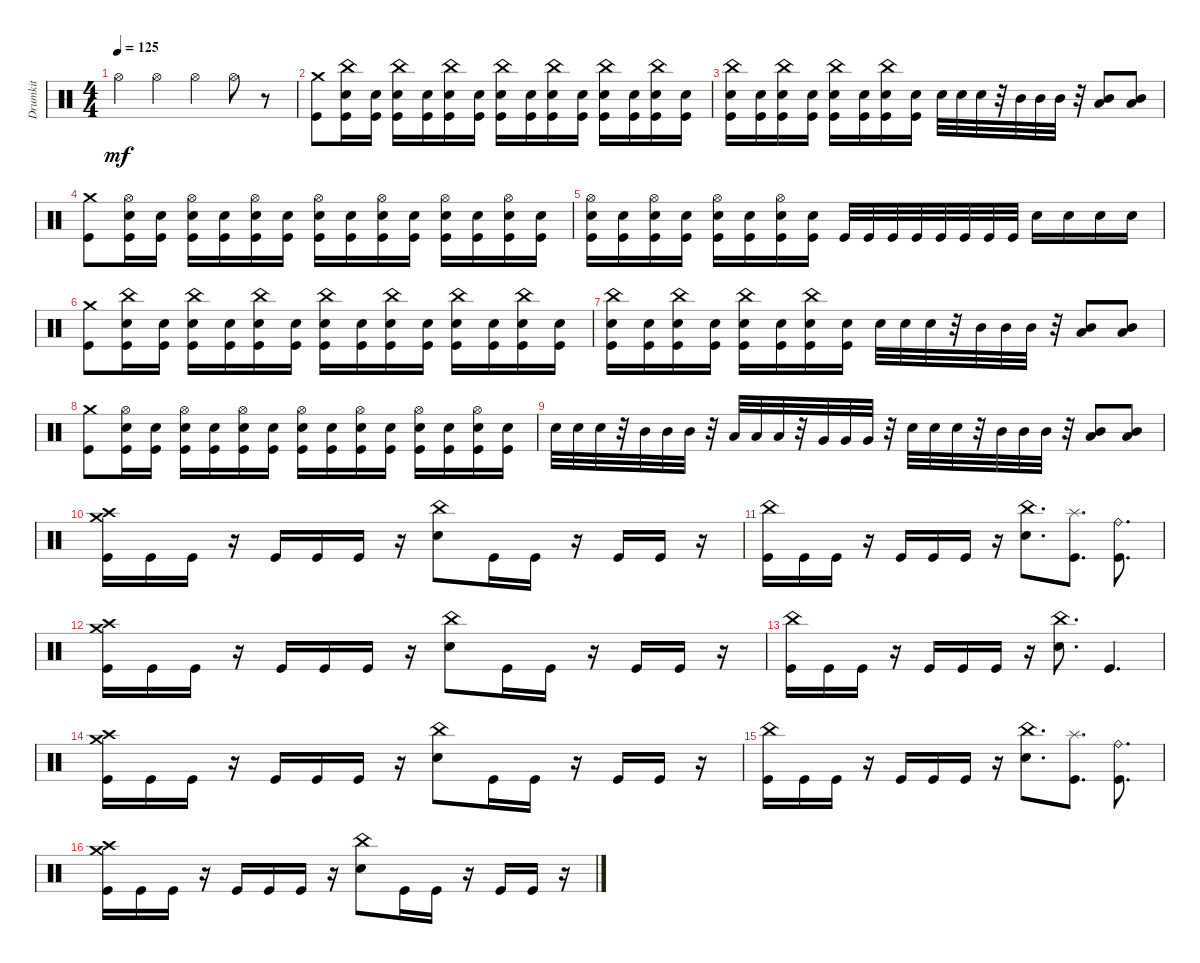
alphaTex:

\track ("Drumkit" "Drumkit") {instrument percussion}
\staff {score}
\articulation defaults
\ts (4 4)
\tempo 125
\clef neutral
\ks c "Hi-Hat (open)".4{dy mf} "Hi-Hat (open)".4 "Hi-Hat (open)".4 "Hi-Hat (open)".8
r.8 |
("Kick (hit)" "Crash medium (hit)").8 ("Kick (hit)" "Snare (hit) 2" "China (hit)").16 ("Kick (hit)" "Snare (hit) 2").16 ("Kick (hit)" "Snare (hit) 2" "China (hit)").16 ("Kick (hit)" "Snare (hit) 2").16 ("Kick (hit)" "Snare (hit) 2" "China (hit)").16 ("Kick (hit)" "Snare (hit) 2").16 ("Kick (hit)" "Snare (hit) 2" "China (hit)").16 ("Kick (hit)" "Snare (hit) 2").16 ("Kick (hit)" "Snare (hit) 2" "China (hit)").16 ("Kick (hit)" "Snare (hit) 2").16 ("Kick (hit)" "Snare (hit) 2" "China (hit)").16 ("Kick (hit)" "Snare (hit) 2").16 ("Kick (hit)" "Snare (hit) 2" "China (hit)").16 ("Kick (hit)" "Snare (hit) 2").16 |
("Kick (hit)" "Snare (hit) 2" "China (hit)").16 ("Kick (hit)" "Snare (hit) 2").16 ("Kick (hit)" "Snare (hit) 2" "China (hit)").16 ("Kick (hit)" "Snare (hit) 2").16 ("Kick (hit)" "Snare (hit) 2" "China (hit)").16 ("Kick (hit)" "Snare (hit) 2").16 ("Kick (hit)" "Snare (hit) 2" "China (hit)").16 ("Kick (hit)" "Snare (hit) 2").16 "Snare (hit) 2".32 "Snare (hit) 2".32 "Snare (hit) 2".32 r.32 "Mid Tom (hit)".32 "Mid Tom (hit)".32 "Mid Tom (hit)".32 r.32 ("Mid Tom (hit)" "Low Floor Tom (hit)").8 ("Mid Tom (hit)" "Low Floor Tom (hit)").8 |
("Kick (hit)" "Crash medium (hit)").8 ("Kick (hit)" "Snare (hit) 2" "Hi-Hat (open)").16 ("Kick (hit)" "Snare (hit) 2").16 ("Kick (hit)" "Snare (hit) 2" "Hi-Hat (open)").16 ("Kick (hit)" "Snare (hit) 2").16 ("Kick (hit)" "Snare (hit) 2" "Hi-Hat (open)").16 ("Kick (hit)" "Snare (hit) 2").16 ("Kick (hit)" "Snare (hit) 2" "Hi-Hat (open)").16 ("Kick (hit)" "Snare (hit) 2").16 ("Kick (hit)" "Snare (hit) 2" "Hi-Hat (open)").16 ("Kick (hit)" "Snare (hit) 2").16 ("Kick (hit)" "Snare (hit) 2" "Hi-Hat (open)").16 ("Kick (hit)" "Snare (hit) 2").16 ("Kick (hit)" "Snare (hit) 2" "Hi-Hat (open)").16 ("Kick (hit)" "Snare (hit) 2").16 |
("Kick (hit)" "Snare (hit) 2" "Hi-Hat (open)").16 ("Kick (hit)" "Snare (hit) 2").16 ("Kick (hit)" "Snare (hit) 2" "Hi-Hat (open)").16 ("Kick (hit)" "Snare (hit) 2").16 ("Kick (hit)" "Snare (hit) 2" "Hi-Hat (open)").16 ("Kick (hit)" "Snare (hit) 2").16 ("Kick (hit)" "Snare (hit) 2" "Hi-Hat (open)").16 ("Kick (hit)" "Snare (hit) 2").16 "Kick (hit)".32 "Kick (hit)".32 "Kick (hit)".32 "Kick (hit)".32 "Kick (hit)".32 "Kick (hit)".32 "Kick (hit)".32 "Kick (hit)".32 "Snare (hit) 2".16 "Snare (hit) 2".16 "Snare (hit) 2".16 "Snare (hit) 2".16 |
("Kick (hit)" "Crash medium (hit)").8 ("Kick (hit)" "Snare (hit) 2" "China (hit)").16 ("Kick (hit)" "Snare (hit) 2").16 ("Kick (hit)" "Snare (hit) 2" "China (hit)").16 ("Kick (hit)" "Snare (hit) 2").16 ("Kick (hit)" "Snare (hit) 2" "China (hit)").16 ("Kick (hit)" "Snare (hit) 2").16 ("Kick (hit)" "Snare (hit) 2" "China (hit)").16 ("Kick (hit)" "Snare (hit) 2").16 ("Kick (hit)" "Snare (hit) 2" "China (hit)").16 ("Kick (hit)" "Snare (hit) 2").16 ("Kick (hit)" "Snare (hit) 2" "China (hit)").16 ("Kick (hit)" "Snare (hit) 2").16 ("Kick (hit)" "Snare (hit) 2" "China (hit)").16 ("Kick (hit)" "Snare (hit) 2").16 |
("Kick (hit)" "Snare (hit) 2" "China (hit)").16 ("Kick (hit)" "Snare (hit) 2").16 ("Kick (hit)" "Snare (hit) 2" "China (hit)").16 ("Kick (hit)" "Snare (hit) 2").16 ("Kick (hit)" "Snare (hit) 2" "China (hit)").16 ("Kick (hit)" "Snare (hit) 2").16 ("Kick (hit)" "Snare (hit) 2" "China (hit)").16 ("Kick (hit)" "Snare (hit) 2").16 "Snare (hit) 2".32 "Snare (hit) 2".32 "Snare (hit) 2".32 r.32 "Mid Tom (hit)".32 "Mid Tom (hit)".32 "Mid Tom (hit)".32 r.32 ("Mid Tom (hit)" "Low Floor Tom (hit)").8 ("Mid Tom (hit)" "Low Floor Tom (hit)").8 |
("Kick (hit)" "Crash medium (hit)").8 ("Kick (hit)" "Snare (hit) 2" "Hi-Hat (open)").16 ("Kick (hit)" "Snare (hit) 2").16 ("Kick (hit)" "Snare (hit) 2" "Hi-Hat (open)").16 ("Kick (hit)" "Snare (hit) 2").16 ("Kick (hit)" "Snare (hit) 2" "Hi-Hat (open)").16 ("Kick (hit)" "Snare (hit) 2").16 ("Kick (hit)" "Snare (hit) 2" "Hi-Hat (open)").16 ("Kick (hit)" "Snare (hit) 2").16 ("Kick (hit)" "Snare (hit) 2" "Hi-Hat (open)").16 ("Kick (hit)" "Snare (hit) 2").16 ("Kick (hit)" "Snare (hit) 2" "Hi-Hat (open)").16 ("Kick (hit)" "Snare (hit) 2").16 ("Kick (hit)" "Snare (hit) 2" "Hi-Hat (open)").16 ("Kick (hit)" "Snare (hit) 2").16 |
"Snare (hit) 2".32 "Snare (hit) 2".32 "Snare (hit) 2".32 r.32 "Mid Tom (hit)".32 "Mid Tom (hit)".32 "Mid Tom (hit)".32 r.32 "Low Tom (hit)".32 "Low Tom (hit)".32 "Low Tom (hit)".32 r.32 "Very Low Tom (hit)".32 "Very Low Tom (hit)".32 "Very Low Tom (hit)".32 r.32 "Snare (hit) 2".32 "Snare (hit) 2".32 "Snare (hit) 2".32 r.32 "Mid Tom (hit)".32 "Mid Tom (hit)".32 "Mid Tom (hit)".32 r.32 ("Low Floor Tom (hit)" "Mid Tom (hit)").8 ("Low Floor Tom (hit)" "Mid Tom (hit)").8 |
("Kick (hit)" "Crash medium (hit)" "Crash high (hit)").16 "Kick (hit)".16 "Kick (hit)".16 r.16 "Kick (hit)".16 "Kick (hit)".16 "Kick (hit)".16 r.16 ("Snare (hit) 2" "China (hit)").8 "Kick (hit)".16 "Kick (hit)".16 r.16 "Kick (hit)".16 "Kick (hit)".16 r.16 |
("Kick (hit)" "China (hit)").16 "Kick (hit)".16 "Kick (hit)".16 r.16 "Kick (hit)".16 "Kick (hit)".16 "Kick (hit)".16 r.16 ("Snare (hit) 2" "China (hit)").8{d} ("Kick (hit)" "Splash (hit)").8{d} ("Kick (hit)" "Ride (bell)").8{d} |
("Kick (hit)" "Crash medium (hit)" "Crash high (hit)").16 "Kick (hit)".16 "Kick (hit)".16 r.16 "Kick (hit)".16 "Kick (hit)".16 "Kick (hit)".16 r.16 ("Snare (hit) 2" "China (hit)").8 "Kick (hit)".16 "Kick (hit)".16 r.16 "Kick (hit)".16 "Kick (hit)".16 r.16 |
("Kick (hit)" "China (hit)").16 "Kick (hit)".16 "Kick (hit)".16 r.16 "Kick (hit)".16 "Kick (hit)".16 "Kick (hit)".16 r.16 ("Snare (hit) 2" "China (hit)").8{d} "Kick (hit)".4{d} |
("Kick (hit)" "Crash medium (hit)" "Crash high (hit)").16 "Kick (hit)".16 "Kick (hit)".16 r.16 "Kick (hit)".16 "Kick (hit)".16 "Kick (hit)".16 r.16 ("Snare (hit) 2" "China (hit)").8 "Kick (hit)".16 "Kick (hit)".16 r.16 "Kick (hit)".16 "Kick (hit)".16 r.16 |
("Kick (hit)" "China (hit)").16 "Kick (hit)".16 "Kick (hit)".16 r.16 "Kick (hit)".16 "Kick (hit)".16 "Kick (hit)".16 r.16 ("Snare (hit) 2" "China (hit)").8{d} ("Kick (hit)" "Splash (hit)").8{d} ("Kick (hit)" "Ride (bell)").8{d} |
("Kick (hit)" "Crash medium (hit)" "Crash high (hit)").16 "Kick (hit)".16 "Kick (hit)".16 r.16 "Kick (hit)".16 "Kick (hit)".16 "Kick (hit)".16 r.16 ("Snare (hit) 2" "China (hit)").8 "Kick (hit)".16 "Kick (hit)".16 r.16 "Kick (hit)".16 "Kick (hit)".16 r.16
